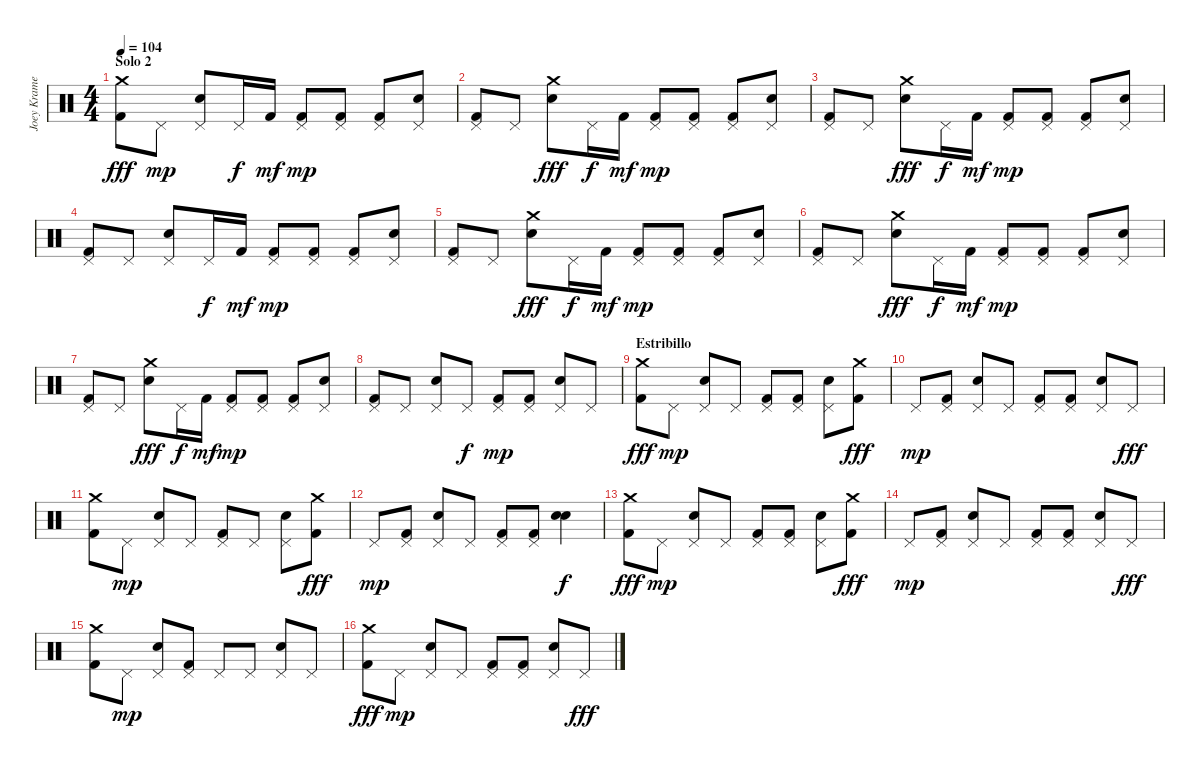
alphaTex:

\track ("Joey Kramer" "Joey Krame") {instrument percussion}
\staff {score}
\articulation defaults
\ts (4 4)
\section ("" "Solo 2")
\tempo 104
\clef neutral
\ks c
("Crash medium (hit)" "Kick (hit) 2").8{dy fff} "Pedal Hi-Hat (hit)".8{dy mp} ("Pedal Hi-Hat (hit)" "Snare (hit) 2").8 "Pedal Hi-Hat (hit)".16{dy f} "Kick (hit) 2".16{dy mf} ("Pedal Hi-Hat (hit)" "Kick (hit) 2").8{dy mp} ("Pedal Hi-Hat (hit)" "Kick (hit) 2").8 ("Pedal Hi-Hat (hit)" "Kick (hit) 2").8 ("Pedal Hi-Hat (hit)" "Snare (hit) 2").8 |
("Pedal Hi-Hat (hit)" "Kick (hit) 2").8 "Pedal Hi-Hat (hit)".8 ("Crash medium (hit)" "Snare (hit) 2").8{dy fff} "Pedal Hi-Hat (hit)".16{dy f} "Kick (hit) 2".16{dy mf} ("Pedal Hi-Hat (hit)" "Kick (hit) 2").8{dy mp} ("Pedal Hi-Hat (hit)" "Kick (hit) 2").8 ("Pedal Hi-Hat (hit)" "Kick (hit) 2").8 ("Pedal Hi-Hat (hit)" "Snare (hit) 2").8 |
("Pedal Hi-Hat (hit)" "Kick (hit) 2").8 "Pedal Hi-Hat (hit)".8 ("Crash medium (hit)" "Snare (hit) 2").8{dy fff} "Pedal Hi-Hat (hit)".16{dy f} "Kick (hit) 2".16{dy mf} ("Pedal Hi-Hat (hit)" "Kick (hit) 2").8{dy mp} ("Pedal Hi-Hat (hit)" "Kick (hit) 2").8 ("Pedal Hi-Hat (hit)" "Kick (hit) 2").8 ("Pedal Hi-Hat (hit)" "Snare (hit) 2").8 |
("Pedal Hi-Hat (hit)" "Kick (hit) 2").8 "Pedal Hi-Hat (hit)".8 ("Pedal Hi-Hat (hit)" "Snare (hit) 2").8 "Pedal Hi-Hat (hit)".16{dy f} "Kick (hit) 2".16{dy mf} ("Pedal Hi-Hat (hit)" "Kick (hit) 2").8{dy mp} ("Pedal Hi-Hat (hit)" "Kick (hit) 2").8 ("Pedal Hi-Hat (hit)" "Kick (hit) 2").8 ("Pedal Hi-Hat (hit)" "Snare (hit) 2").8 |
("Pedal Hi-Hat (hit)" "Kick (hit) 2").8 "Pedal Hi-Hat (hit)".8 ("Crash medium (hit)" "Snare (hit) 2").8{dy fff} "Pedal Hi-Hat (hit)".16{dy f} "Kick (hit) 2".16{dy mf} ("Pedal Hi-Hat (hit)" "Kick (hit) 2").8{dy mp} ("Pedal Hi-Hat (hit)" "Kick (hit) 2").8 ("Pedal Hi-Hat (hit)" "Kick (hit) 2").8 ("Pedal Hi-Hat (hit)" "Snare (hit) 2").8 |
("Pedal Hi-Hat (hit)" "Kick (hit) 2").8 "Pedal Hi-Hat (hit)".8 ("Crash medium (hit)" "Snare (hit) 2").8{dy fff} "Pedal Hi-Hat (hit)".16{dy f} "Kick (hit) 2".16{dy mf} ("Pedal Hi-Hat (hit)" "Kick (hit) 2").8{dy mp} ("Pedal Hi-Hat (hit)" "Kick (hit) 2").8 ("Pedal Hi-Hat (hit)" "Kick (hit) 2").8 ("Pedal Hi-Hat (hit)" "Snare (hit) 2").8 |
("Pedal Hi-Hat (hit)" "Kick (hit) 2").8 "Pedal Hi-Hat (hit)".8 ("Crash medium (hit)" "Snare (hit) 2").8{dy fff} "Pedal Hi-Hat (hit)".16{dy f} "Kick (hit) 2".16{dy mf} ("Pedal Hi-Hat (hit)" "Kick (hit) 2").8{dy mp} ("Pedal Hi-Hat (hit)" "Kick (hit) 2").8 ("Pedal Hi-Hat (hit)" "Kick (hit) 2").8 ("Pedal Hi-Hat (hit)" "Snare (hit) 2").8 |
("Pedal Hi-Hat (hit)" "Kick (hit) 2").8 "Pedal Hi-Hat (hit)".8 ("Pedal Hi-Hat (hit)" "Snare (hit) 2").8 "Pedal Hi-Hat (hit)".8{dy f} ("Pedal Hi-Hat (hit)" "Kick (hit) 2").8{dy mp} ("Pedal Hi-Hat (hit)" "Kick (hit) 2").8 ("Pedal Hi-Hat (hit)" "Snare (hit) 2").8 "Pedal Hi-Hat (hit)".8 |
\section ("" "Estribillo")
("Crash medium (hit)" "Kick (hit) 2").8{dy fff} "Pedal Hi-Hat (hit)".8{dy mp} ("Pedal Hi-Hat (hit)" "Snare (hit) 2").8 "Pedal Hi-Hat (hit)".8 ("Pedal Hi-Hat (hit)" "Kick (hit) 2").8 ("Pedal Hi-Hat (hit)" "Kick (hit) 2").8 ("Pedal Hi-Hat (hit)" "Snare (hit) 2").8 ("Crash medium (hit)" "Kick (hit) 2").8{dy fff} |
"Pedal Hi-Hat (hit)".8{dy mp} ("Pedal Hi-Hat (hit)" "Kick (hit) 2").8 ("Pedal Hi-Hat (hit)" "Snare (hit) 2").8 "Pedal Hi-Hat (hit)".8 ("Pedal Hi-Hat (hit)" "Kick (hit) 2").8 ("Pedal Hi-Hat (hit)" "Kick (hit) 2").8 ("Pedal Hi-Hat (hit)" "Snare (hit) 2").8 "Pedal Hi-Hat (hit)".8{dy fff} |
("Crash medium (hit)" "Kick (hit) 2").8 "Pedal Hi-Hat (hit)".8{dy mp} ("Pedal Hi-Hat (hit)" "Snare (hit) 2").8 "Pedal Hi-Hat (hit)".8 ("Pedal Hi-Hat (hit)" "Kick (hit) 2").8 "Pedal Hi-Hat (hit)".8 ("Pedal Hi-Hat (hit)" "Snare (hit) 2").8 ("Crash medium (hit)" "Kick (hit) 2").8{dy fff} |
"Pedal Hi-Hat (hit)".8{dy mp} ("Pedal Hi-Hat (hit)" "Kick (hit) 2").8 ("Pedal Hi-Hat (hit)" "Snare (hit) 2").8 "Pedal Hi-Hat (hit)".8 ("Pedal Hi-Hat (hit)" "Kick (hit) 2").8 ("Pedal Hi-Hat (hit)" "Kick (hit) 2").8 ("Snare (hit) 2" "Snare (hit) 2").4{bd 120 dy f} |
("Crash medium (hit)" "Kick (hit) 2").8{dy fff} "Pedal Hi-Hat (hit)".8{dy mp} ("Pedal Hi-Hat (hit)" "Snare (hit) 2").8 "Pedal Hi-Hat (hit)".8 ("Pedal Hi-Hat (hit)" "Kick (hit) 2").8 ("Pedal Hi-Hat (hit)" "Kick (hit) 2").8 ("Pedal Hi-Hat (hit)" "Snare (hit) 2").8 ("Crash medium (hit)" "Kick (hit) 2").8{dy fff} |
"Pedal Hi-Hat (hit)".8{dy mp} ("Pedal Hi-Hat (hit)" "Kick (hit) 2").8 ("Pedal Hi-Hat (hit)" "Snare (hit) 2").8 "Pedal Hi-Hat (hit)".8 ("Pedal Hi-Hat (hit)" "Kick (hit) 2").8 ("Pedal Hi-Hat (hit)" "Kick (hit) 2").8 ("Pedal Hi-Hat (hit)" "Snare (hit) 2").8 "Pedal Hi-Hat (hit)".8{dy fff} |
("Crash medium (hit)" "Kick (hit) 2").8 "Pedal Hi-Hat (hit)".8{dy mp} ("Pedal Hi-Hat (hit)" "Snare (hit) 2").8 ("Pedal Hi-Hat (hit)" "Kick (hit) 2").8 "Pedal Hi-Hat (hit)".8 "Pedal Hi-Hat (hit)".8 ("Pedal Hi-Hat (hit)" "Snare (hit) 2").8 "Pedal Hi-Hat (hit)".8 |
("Crash medium (hit)" "Kick (hit) 2").8{dy fff} "Pedal Hi-Hat (hit)".8{dy mp} ("Pedal Hi-Hat (hit)" "Snare (hit) 2").8 "Pedal Hi-Hat (hit)".8 ("Pedal Hi-Hat (hit)" "Kick (hit) 2").8 ("Pedal Hi-Hat (hit)" "Kick (hit) 2").8 ("Pedal Hi-Hat (hit)" "Snare (hit) 2").8 "Pedal Hi-Hat (hit)".8{dy fff}
